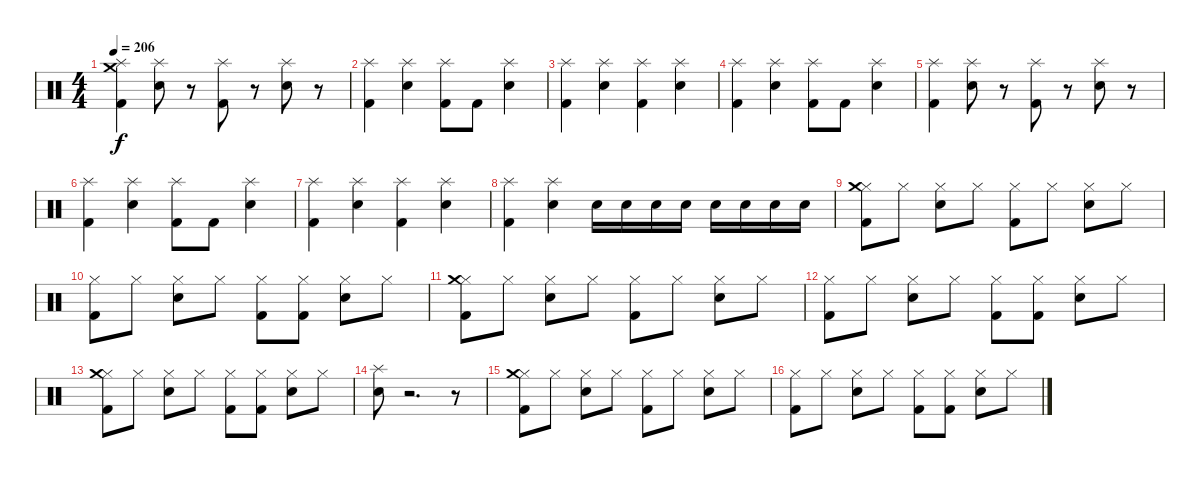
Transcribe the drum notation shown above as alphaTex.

\track "" {instrument percussion}
\staff {score}
\articulation defaults
\ts (4 4)
\tempo 206
\clef neutral
\ks c
("Splash (hit)" "Crash medium (hit)" "Kick (hit) 2").4{dy f} ("Splash (hit)" "Electric Snare (hit)").8 r.8 ("Splash (hit)" "Kick (hit) 2").8 r.8 ("Splash (hit)" "Electric Snare (hit)").8 r.8 |
("Splash (hit)" "Kick (hit) 2").4 ("Splash (hit)" "Electric Snare (hit)").4 ("Splash (hit)" "Kick (hit) 2").8 "Kick (hit) 2".8 ("Splash (hit)" "Electric Snare (hit)").4 |
("Splash (hit)" "Kick (hit) 2").4 ("Splash (hit)" "Electric Snare (hit)").4 ("Splash (hit)" "Kick (hit) 2").4 ("Splash (hit)" "Electric Snare (hit)").4 |
("Splash (hit)" "Kick (hit) 2").4 ("Splash (hit)" "Electric Snare (hit)").4 ("Splash (hit)" "Kick (hit) 2").8 "Kick (hit) 2".8 ("Splash (hit)" "Electric Snare (hit)").4 |
("Splash (hit)" "Kick (hit) 2").4 ("Splash (hit)" "Electric Snare (hit)").8 r.8 ("Splash (hit)" "Kick (hit) 2").8 r.8 ("Splash (hit)" "Electric Snare (hit)").8 r.8 |
("Splash (hit)" "Kick (hit) 2").4 ("Splash (hit)" "Electric Snare (hit)").4 ("Splash (hit)" "Kick (hit) 2").8 "Kick (hit) 2".8 ("Splash (hit)" "Electric Snare (hit)").4 |
("Splash (hit)" "Kick (hit) 2").4 ("Splash (hit)" "Electric Snare (hit)").4 ("Splash (hit)" "Kick (hit) 2").4 ("Splash (hit)" "Electric Snare (hit)").4 |
("Splash (hit)" "Kick (hit) 2").4 ("Splash (hit)" "Electric Snare (hit)").4 "Electric Snare (hit)".16 "Electric Snare (hit)".16 "Electric Snare (hit)".16 "Electric Snare (hit)".16 "Electric Snare (hit)".16 "Electric Snare (hit)".16 "Electric Snare (hit)".16 "Electric Snare (hit)".16 |
("Hi-Hat (closed)" "Crash medium (hit)" "Kick (hit) 2").8 "Hi-Hat (closed)".8 ("Hi-Hat (closed)" "Electric Snare (hit)").8 "Hi-Hat (closed)".8 ("Hi-Hat (closed)" "Kick (hit) 2").8 "Hi-Hat (closed)".8 ("Hi-Hat (closed)" "Electric Snare (hit)").8 "Hi-Hat (closed)".8 |
("Hi-Hat (closed)" "Kick (hit) 2").8 "Hi-Hat (closed)".8 ("Hi-Hat (closed)" "Electric Snare (hit)").8 "Hi-Hat (closed)".8 ("Hi-Hat (closed)" "Kick (hit) 2").8 ("Hi-Hat (closed)" "Kick (hit) 2").8 ("Hi-Hat (closed)" "Electric Snare (hit)").8 "Hi-Hat (closed)".8 |
("Hi-Hat (closed)" "Crash medium (hit)" "Kick (hit) 2").8 "Hi-Hat (closed)".8 ("Hi-Hat (closed)" "Electric Snare (hit)").8 "Hi-Hat (closed)".8 ("Hi-Hat (closed)" "Kick (hit) 2").8 "Hi-Hat (closed)".8 ("Hi-Hat (closed)" "Electric Snare (hit)").8 "Hi-Hat (closed)".8 |
("Hi-Hat (closed)" "Kick (hit) 2").8 "Hi-Hat (closed)".8 ("Hi-Hat (closed)" "Electric Snare (hit)").8 "Hi-Hat (closed)".8 ("Hi-Hat (closed)" "Kick (hit) 2").8 ("Hi-Hat (closed)" "Kick (hit) 2").8 ("Hi-Hat (closed)" "Electric Snare (hit)").8 "Hi-Hat (closed)".8 |
("Hi-Hat (closed)" "Crash medium (hit)" "Kick (hit) 2").8 "Hi-Hat (closed)".8 ("Hi-Hat (closed)" "Electric Snare (hit)").8 "Hi-Hat (closed)".8 ("Hi-Hat (closed)" "Kick (hit) 2").8 ("Kick (hit) 2" "Hi-Hat (closed)").8 ("Hi-Hat (closed)" "Electric Snare (hit)").8 "Hi-Hat (closed)".8 |
("Electric Snare (hit)" "Splash (hit)").8 r.2{d} r.8 |
("Hi-Hat (closed)" "Crash medium (hit)" "Kick (hit) 2").8 "Hi-Hat (closed)".8 ("Hi-Hat (closed)" "Electric Snare (hit)").8 "Hi-Hat (closed)".8 ("Hi-Hat (closed)" "Kick (hit) 2").8 "Hi-Hat (closed)".8 ("Hi-Hat (closed)" "Electric Snare (hit)").8 "Hi-Hat (closed)".8 |
("Hi-Hat (closed)" "Kick (hit) 2").8 "Hi-Hat (closed)".8 ("Hi-Hat (closed)" "Electric Snare (hit)").8 "Hi-Hat (closed)".8 ("Hi-Hat (closed)" "Kick (hit) 2").8 ("Hi-Hat (closed)" "Kick (hit) 2").8 ("Hi-Hat (closed)" "Electric Snare (hit)").8 "Hi-Hat (closed)".8
